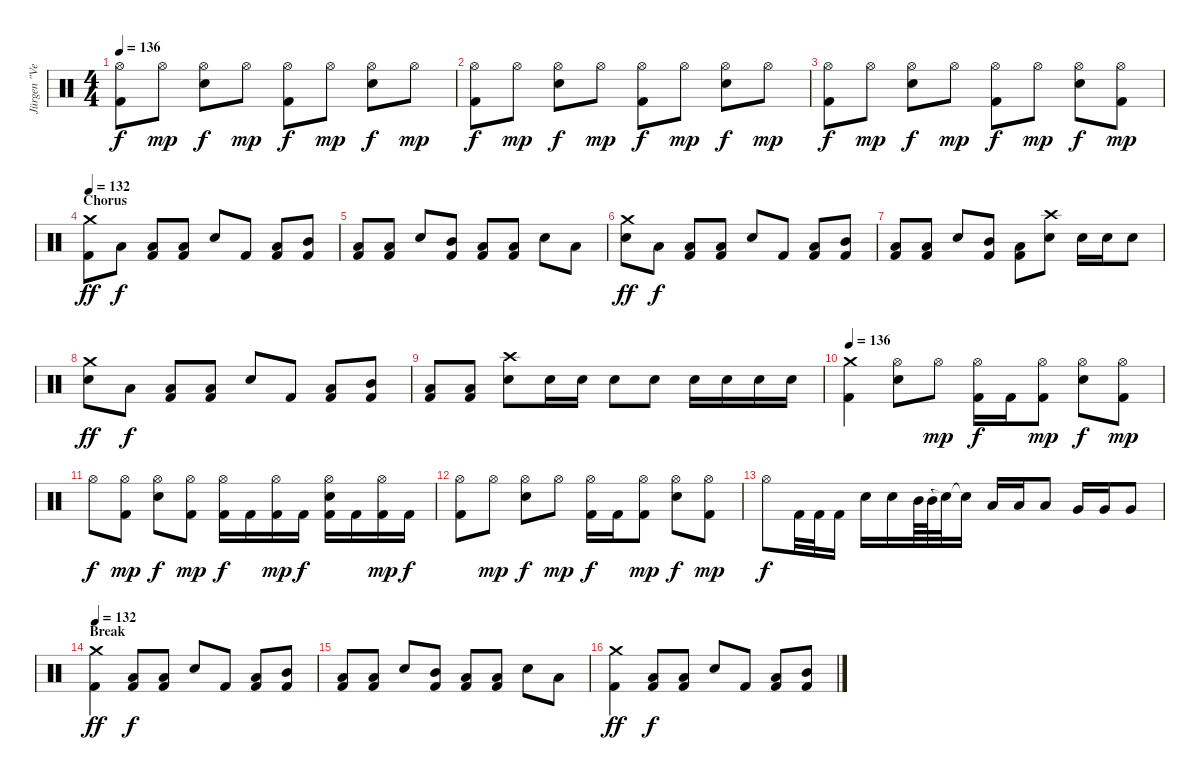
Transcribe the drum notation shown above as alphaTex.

\track ("Jürgen \"Ventor\" Reil" "Jürgen \"Ve") {instrument percussion}
\staff {score}
\articulation defaults
\ts (4 4)
\tempo 136
\clef neutral
\ks c
("Kick (hit) 2" "Hi-Hat (open)").8{dy f} "Hi-Hat (open)".8{dy mp} ("Hi-Hat (open)" "Snare (hit) 2").8{dy f} "Hi-Hat (open)".8{dy mp} ("Kick (hit) 2" "Hi-Hat (open)").8{dy f} "Hi-Hat (open)".8{dy mp} ("Hi-Hat (open)" "Snare (hit) 2").8{dy f} "Hi-Hat (open)".8{dy mp} |
("Kick (hit) 2" "Hi-Hat (open)").8{dy f} "Hi-Hat (open)".8{dy mp} ("Hi-Hat (open)" "Snare (hit) 2").8{dy f} "Hi-Hat (open)".8{dy mp} ("Kick (hit) 2" "Hi-Hat (open)").8{dy f} "Hi-Hat (open)".8{dy mp} ("Hi-Hat (open)" "Snare (hit) 2").8{dy f} "Hi-Hat (open)".8{dy mp} |
("Kick (hit) 2" "Hi-Hat (open)").8{dy f} "Hi-Hat (open)".8{dy mp} ("Hi-Hat (open)" "Snare (hit) 2").8{dy f} "Hi-Hat (open)".8{dy mp} ("Kick (hit) 2" "Hi-Hat (open)").8{dy f} "Hi-Hat (open)".8{dy mp} ("Hi-Hat (open)" "Snare (hit) 2").8{dy f} ("Kick (hit) 2" "Hi-Hat (open)").8{dy mp} |
\section ("" "Chorus")
\tempo 132
("Kick (hit) 2" "Crash medium (hit)").8{dy ff} "Low Tom (hit)".8{dy f} ("Kick (hit) 2" "Low Tom (hit)").8 ("Kick (hit) 2" "Low Tom (hit)").8 "Snare (hit) 2".8 "Kick (hit) 2".8 ("Kick (hit) 2" "Low Tom (hit)").8 ("Kick (hit) 2" "Mid Tom (hit)").8 |
("Kick (hit) 2" "Low Tom (hit)").8 ("Kick (hit) 2" "Low Tom (hit)").8 "Snare (hit) 2".8 ("Kick (hit) 2" "Mid Tom (hit)").8 ("Kick (hit) 2" "Low Tom (hit)").8 ("Kick (hit) 2" "Low Tom (hit)").8 "Snare (hit) 2".8 "Low Tom (hit)".8 |
("Crash medium (hit)" "Snare (hit) 2").8{dy ff} "Low Tom (hit)".8{dy f} ("Kick (hit) 2" "Low Tom (hit)").8 ("Kick (hit) 2" "Low Tom (hit)").8 "Snare (hit) 2".8 "Kick (hit) 2".8 ("Kick (hit) 2" "Low Tom (hit)").8 ("Kick (hit) 2" "Mid Tom (hit)").8 |
("Kick (hit) 2" "Low Tom (hit)").8 ("Kick (hit) 2" "Low Tom (hit)").8 "Snare (hit) 2".8 ("Kick (hit) 2" "Mid Tom (hit)").8 ("Kick (hit) 2" "Low Tom (hit)").8 ("Crash high (hit)" "Snare (hit) 2").8 "Snare (hit) 2".16 "Snare (hit) 2".16 "Snare (hit) 2".8 |
("Crash medium (hit)" "Snare (hit) 2").8{dy ff} "Low Tom (hit)".8{dy f} ("Kick (hit) 2" "Low Tom (hit)").8 ("Kick (hit) 2" "Low Tom (hit)").8 "Snare (hit) 2".8 "Kick (hit) 2".8 ("Kick (hit) 2" "Low Tom (hit)").8 ("Kick (hit) 2" "Mid Tom (hit)").8 |
("Kick (hit) 2" "Low Tom (hit)").8 ("Kick (hit) 2" "Low Tom (hit)").8 ("Crash high (hit)" "Snare (hit) 2").8 "Snare (hit) 2".16 "Snare (hit) 2".16 "Snare (hit) 2".8 "Snare (hit) 2".8 "Snare (hit) 2".16 "Snare (hit) 2".16 "Snare (hit) 2".16 "Snare (hit) 2".16 |
\tempo 136
("Kick (hit) 2" "Crash medium (hit)").4 ("Hi-Hat (open)" "Snare (hit) 2").8 "Hi-Hat (open)".8{dy mp} ("Kick (hit) 2" "Hi-Hat (open)").16{dy f} "Kick (hit) 2".16 ("Kick (hit) 2" "Hi-Hat (open)").8{dy mp} ("Hi-Hat (open)" "Snare (hit) 2").8{dy f} ("Kick (hit) 2" "Hi-Hat (open)").8{dy mp} |
"Hi-Hat (open)".8{dy f} ("Kick (hit) 2" "Hi-Hat (open)").8{dy mp} ("Hi-Hat (open)" "Snare (hit) 2").8{dy f} ("Kick (hit) 2" "Hi-Hat (open)").8{dy mp} ("Kick (hit) 2" "Hi-Hat (open)").16{dy f} "Kick (hit) 2".16 ("Kick (hit) 2" "Hi-Hat (open)").16{dy mp} "Kick (hit) 2".16{dy f} ("Kick (hit) 2" "Hi-Hat (open)" "Snare (hit) 2").16 "Kick (hit) 2".16 ("Kick (hit) 2" "Hi-Hat (open)").16{dy mp} "Kick (hit) 2".16{dy f} |
("Kick (hit) 2" "Hi-Hat (open)").8 "Hi-Hat (open)".8{dy mp} ("Hi-Hat (open)" "Snare (hit) 2").8{dy f} "Hi-Hat (open)".8{dy mp} ("Kick (hit) 2" "Hi-Hat (open)").16{dy f} "Kick (hit) 2".16 ("Kick (hit) 2" "Hi-Hat (open)").8{dy mp} ("Hi-Hat (open)" "Snare (hit) 2").8{dy f} ("Kick (hit) 2" "Hi-Hat (open)").8{dy mp} |
"Hi-Hat (open)".8{dy f} "Kick (hit) 2".32 "Kick (hit) 2".32 "Kick (hit) 2".16 "Snare (hit) 2".16 "Snare (hit) 2".16 "Mid Tom (hit)".64 "Mid Tom (hit)".64 "Snare (hit)"{t}.32 "Snare (hit)"{t}.16 "Low Tom (hit)".16 "Low Tom (hit)".16 "Low Tom (hit)".8 "Very Low Tom (hit)".16 "Very Low Tom (hit)".16 "Very Low Tom (hit)".8 |
\section ("" "Break")
\tempo 132
("Kick (hit) 2" "Crash medium (hit)").4{dy ff} ("Kick (hit) 2" "Low Tom (hit)").8{dy f} ("Kick (hit) 2" "Low Tom (hit)").8 "Snare (hit) 2".8 "Kick (hit) 2".8 ("Kick (hit) 2" "Low Tom (hit)").8 ("Kick (hit) 2" "Mid Tom (hit)").8 |
("Kick (hit) 2" "Low Tom (hit)").8 ("Kick (hit) 2" "Low Tom (hit)").8 "Snare (hit) 2".8 ("Kick (hit) 2" "Mid Tom (hit)").8 ("Kick (hit) 2" "Low Tom (hit)").8 ("Kick (hit) 2" "Low Tom (hit)").8 "Snare (hit) 2".8 "Low Tom (hit)".8 |
("Kick (hit) 2" "Crash medium (hit)").4{dy ff} ("Kick (hit) 2" "Low Tom (hit)").8{dy f} ("Kick (hit) 2" "Low Tom (hit)").8 "Snare (hit) 2".8 "Kick (hit) 2".8 ("Kick (hit) 2" "Low Tom (hit)").8 ("Kick (hit) 2" "Mid Tom (hit)").8
